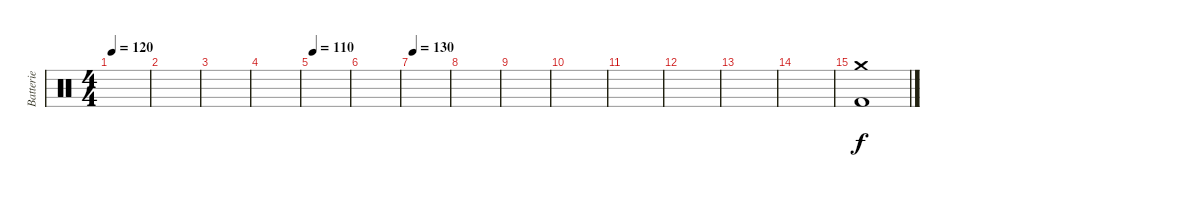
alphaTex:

\track ("Batterie" "Batterie") {instrument percussion}
\staff {score}
\articulation defaults
\ts (4 4)
\tempo 120
\clef neutral
\ks c
|
|
|
|
\tempo 110
|
|
\tempo 130
|
|
|
|
|
|
|
|
("Crash medium (hit)" "Kick (hit) 2").1
